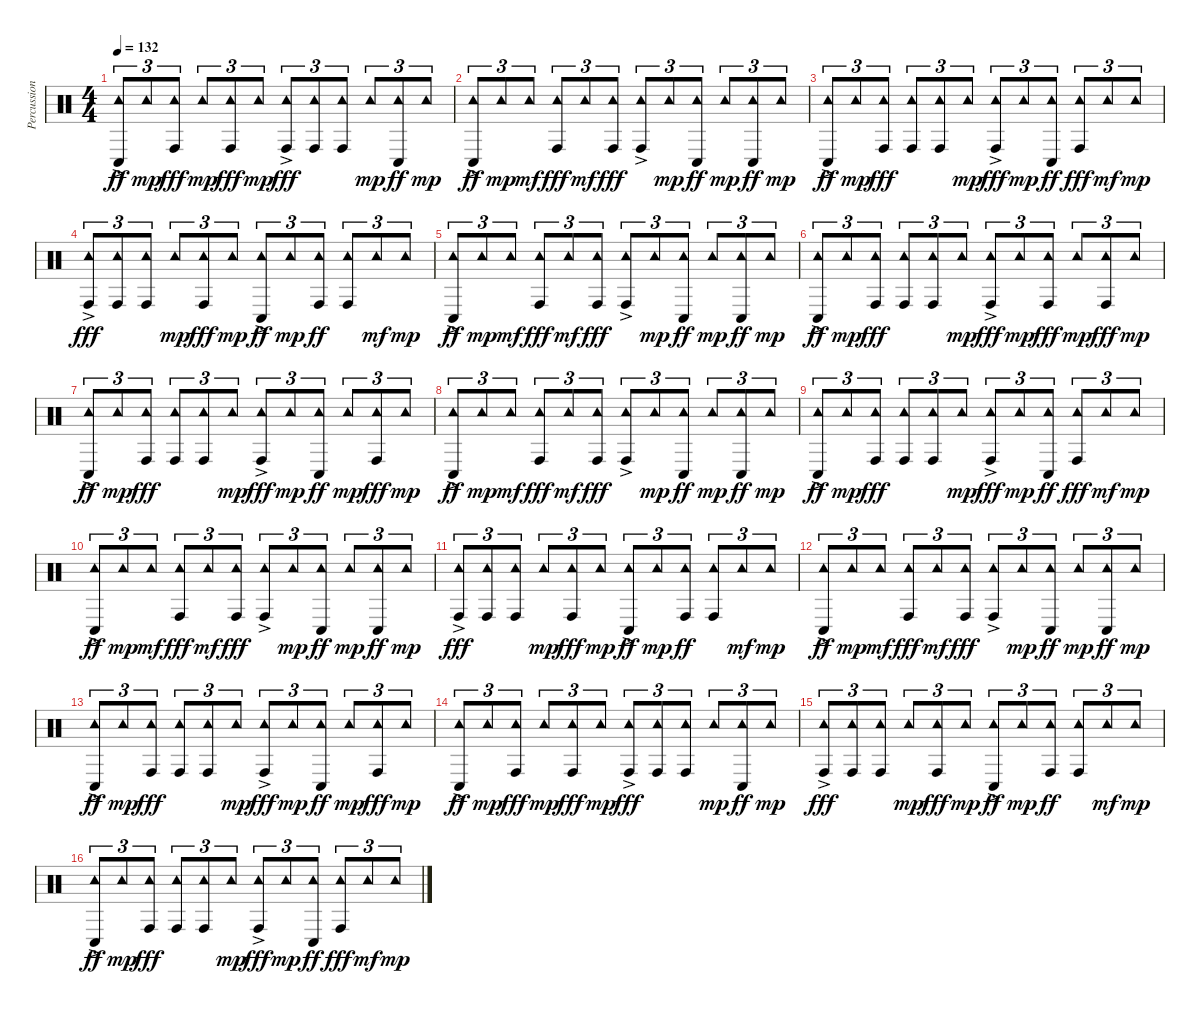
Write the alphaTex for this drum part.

\track ("Percussion" "Percussion") {instrument percussion}
\staff {score}
\articulation defaults
\ts (4 4)
\tempo 132
\clef neutral
\ks c
("Tambourine (hit)"{ac} "Conga low (hit)").8{tu (3 2) dy ff} "Tambourine (hit)".8{tu (3 2) dy mp} ("Tambourine (hit)" "Conga high (hit)").8{tu (3 2) dy fff} "Tambourine (hit)".8{tu (3 2) dy mp} ("Tambourine (hit)" "Conga high (hit)").8{tu (3 2) dy fff} "Tambourine (hit)".8{tu (3 2) dy mp} ("Tambourine (hit)"{ac} "Conga high (hit)").8{tu (3 2) dy fff} ("Tambourine (hit)" "Conga high (hit)").8{tu (3 2)} ("Tambourine (hit)" "Conga high (hit)").8{tu (3 2)} "Tambourine (hit)".8{tu (3 2) dy mp} ("Tambourine (hit)" "Conga low (hit)").8{tu (3 2) dy ff} "Tambourine (hit)".8{tu (3 2) dy mp} |
("Tambourine (hit)"{ac} "Conga low (hit)").8{tu (3 2) dy ff} "Tambourine (hit)".8{tu (3 2) dy mp} "Tambourine (hit)".8{tu (3 2) dy mf} ("Tambourine (hit)" "Conga high (hit)").8{tu (3 2) dy fff} "Tambourine (hit)".8{tu (3 2) dy mf} ("Tambourine (hit)" "Conga high (hit)").8{tu (3 2) dy fff} ("Tambourine (hit)"{ac} "Conga high (hit)").8{tu (3 2)} "Tambourine (hit)".8{tu (3 2) dy mp} ("Tambourine (hit)" "Conga low (hit)").8{tu (3 2) dy ff} "Tambourine (hit)".8{tu (3 2) dy mp} ("Tambourine (hit)" "Conga low (hit)").8{tu (3 2) dy ff} "Tambourine (hit)".8{tu (3 2) dy mp} |
("Tambourine (hit)"{ac} "Conga low (hit)").8{tu (3 2) dy ff} "Tambourine (hit)".8{tu (3 2) dy mp} ("Tambourine (hit)" "Conga high (hit)").8{tu (3 2) dy fff} ("Tambourine (hit)" "Conga high (hit)").8{tu (3 2)} ("Tambourine (hit)" "Conga high (hit)").8{tu (3 2)} "Tambourine (hit)".8{tu (3 2) dy mp} ("Tambourine (hit)"{ac} "Conga high (hit)").8{tu (3 2) dy fff} "Tambourine (hit)".8{tu (3 2) dy mp} ("Tambourine (hit)" "Conga low (hit)").8{tu (3 2) dy ff} ("Tambourine (hit)" "Conga high (hit)").8{tu (3 2) dy fff} "Tambourine (hit)".8{tu (3 2) dy mf} "Tambourine (hit)".8{tu (3 2) dy mp} |
("Tambourine (hit)"{ac} "Conga high (hit)").8{tu (3 2) dy fff} ("Tambourine (hit)" "Conga high (hit)").8{tu (3 2)} ("Tambourine (hit)" "Conga high (hit)").8{tu (3 2)} "Tambourine (hit)".8{tu (3 2) dy mp} ("Tambourine (hit)" "Conga high (hit)").8{tu (3 2) dy fff} "Tambourine (hit)".8{tu (3 2) dy mp} ("Tambourine (hit)"{ac} "Conga low (hit)").8{tu (3 2) dy ff} "Tambourine (hit)".8{tu (3 2) dy mp} ("Tambourine (hit)" "Conga high (hit)").8{tu (3 2) dy ff} ("Tambourine (hit)" "Conga high (hit)").8{tu (3 2)} "Tambourine (hit)".8{tu (3 2) dy mf} "Tambourine (hit)".8{tu (3 2) dy mp} |
("Tambourine (hit)"{ac} "Conga low (hit)").8{tu (3 2) dy ff} "Tambourine (hit)".8{tu (3 2) dy mp} "Tambourine (hit)".8{tu (3 2) dy mf} ("Tambourine (hit)" "Conga high (hit)").8{tu (3 2) dy fff} "Tambourine (hit)".8{tu (3 2) dy mf} ("Tambourine (hit)" "Conga high (hit)").8{tu (3 2) dy fff} ("Tambourine (hit)"{ac} "Conga high (hit)").8{tu (3 2)} "Tambourine (hit)".8{tu (3 2) dy mp} ("Tambourine (hit)" "Conga low (hit)").8{tu (3 2) dy ff} "Tambourine (hit)".8{tu (3 2) dy mp} ("Tambourine (hit)" "Conga low (hit)").8{tu (3 2) dy ff} "Tambourine (hit)".8{tu (3 2) dy mp} |
("Tambourine (hit)"{ac} "Conga low (hit)").8{tu (3 2) dy ff} "Tambourine (hit)".8{tu (3 2) dy mp} ("Tambourine (hit)" "Conga high (hit)").8{tu (3 2) dy fff} ("Tambourine (hit)" "Conga high (hit)").8{tu (3 2)} ("Tambourine (hit)" "Conga high (hit)").8{tu (3 2)} "Tambourine (hit)".8{tu (3 2) dy mp} ("Tambourine (hit)"{ac} "Conga high (hit)").8{tu (3 2) dy fff} "Tambourine (hit)".8{tu (3 2) dy mp} ("Tambourine (hit)" "Conga high (hit)").8{tu (3 2) dy fff} "Tambourine (hit)".8{tu (3 2) dy mp} ("Tambourine (hit)" "Conga high (hit)").8{tu (3 2) dy fff} "Tambourine (hit)".8{tu (3 2) dy mp} |
("Tambourine (hit)"{ac} "Conga low (hit)").8{tu (3 2) dy ff} "Tambourine (hit)".8{tu (3 2) dy mp} ("Tambourine (hit)" "Conga high (hit)").8{tu (3 2) dy fff} ("Tambourine (hit)" "Conga high (hit)").8{tu (3 2)} ("Tambourine (hit)" "Conga high (hit)").8{tu (3 2)} "Tambourine (hit)".8{tu (3 2) dy mp} ("Tambourine (hit)"{ac} "Conga high (hit)").8{tu (3 2) dy fff} "Tambourine (hit)".8{tu (3 2) dy mp} ("Tambourine (hit)" "Conga low (hit)").8{tu (3 2) dy ff} "Tambourine (hit)".8{tu (3 2) dy mp} ("Tambourine (hit)" "Conga high (hit)").8{tu (3 2) dy fff} "Tambourine (hit)".8{tu (3 2) dy mp} |
("Tambourine (hit)"{ac} "Conga low (hit)").8{tu (3 2) dy ff} "Tambourine (hit)".8{tu (3 2) dy mp} "Tambourine (hit)".8{tu (3 2) dy mf} ("Tambourine (hit)" "Conga high (hit)").8{tu (3 2) dy fff} "Tambourine (hit)".8{tu (3 2) dy mf} ("Tambourine (hit)" "Conga high (hit)").8{tu (3 2) dy fff} ("Tambourine (hit)"{ac} "Conga high (hit)").8{tu (3 2)} "Tambourine (hit)".8{tu (3 2) dy mp} ("Tambourine (hit)" "Conga low (hit)").8{tu (3 2) dy ff} "Tambourine (hit)".8{tu (3 2) dy mp} ("Tambourine (hit)" "Conga low (hit)").8{tu (3 2) dy ff} "Tambourine (hit)".8{tu (3 2) dy mp} |
("Tambourine (hit)"{ac} "Conga low (hit)").8{tu (3 2) dy ff} "Tambourine (hit)".8{tu (3 2) dy mp} ("Tambourine (hit)" "Conga high (hit)").8{tu (3 2) dy fff} ("Tambourine (hit)" "Conga high (hit)").8{tu (3 2)} ("Tambourine (hit)" "Conga high (hit)").8{tu (3 2)} "Tambourine (hit)".8{tu (3 2) dy mp} ("Tambourine (hit)"{ac} "Conga high (hit)").8{tu (3 2) dy fff} "Tambourine (hit)".8{tu (3 2) dy mp} ("Tambourine (hit)" "Conga low (hit)").8{tu (3 2) dy ff} ("Tambourine (hit)" "Conga high (hit)").8{tu (3 2) dy fff} "Tambourine (hit)".8{tu (3 2) dy mf} "Tambourine (hit)".8{tu (3 2) dy mp} |
("Tambourine (hit)"{ac} "Conga low (hit)").8{tu (3 2) dy ff} "Tambourine (hit)".8{tu (3 2) dy mp} "Tambourine (hit)".8{tu (3 2) dy mf} ("Tambourine (hit)" "Conga high (hit)").8{tu (3 2) dy fff} "Tambourine (hit)".8{tu (3 2) dy mf} ("Tambourine (hit)" "Conga high (hit)").8{tu (3 2) dy fff} ("Tambourine (hit)"{ac} "Conga high (hit)").8{tu (3 2)} "Tambourine (hit)".8{tu (3 2) dy mp} ("Tambourine (hit)" "Conga low (hit)").8{tu (3 2) dy ff} "Tambourine (hit)".8{tu (3 2) dy mp} ("Tambourine (hit)" "Conga low (hit)").8{tu (3 2) dy ff} "Tambourine (hit)".8{tu (3 2) dy mp} |
("Tambourine (hit)"{ac} "Conga high (hit)").8{tu (3 2) dy fff} ("Tambourine (hit)" "Conga high (hit)").8{tu (3 2)} ("Tambourine (hit)" "Conga high (hit)").8{tu (3 2)} "Tambourine (hit)".8{tu (3 2) dy mp} ("Tambourine (hit)" "Conga high (hit)").8{tu (3 2) dy fff} "Tambourine (hit)".8{tu (3 2) dy mp} ("Tambourine (hit)"{ac} "Conga low (hit)").8{tu (3 2) dy ff} "Tambourine (hit)".8{tu (3 2) dy mp} ("Tambourine (hit)" "Conga high (hit)").8{tu (3 2) dy ff} ("Tambourine (hit)" "Conga high (hit)").8{tu (3 2)} "Tambourine (hit)".8{tu (3 2) dy mf} "Tambourine (hit)".8{tu (3 2) dy mp} |
("Tambourine (hit)"{ac} "Conga low (hit)").8{tu (3 2) dy ff} "Tambourine (hit)".8{tu (3 2) dy mp} "Tambourine (hit)".8{tu (3 2) dy mf} ("Tambourine (hit)" "Conga high (hit)").8{tu (3 2) dy fff} "Tambourine (hit)".8{tu (3 2) dy mf} ("Tambourine (hit)" "Conga high (hit)").8{tu (3 2) dy fff} ("Tambourine (hit)"{ac} "Conga high (hit)").8{tu (3 2)} "Tambourine (hit)".8{tu (3 2) dy mp} ("Tambourine (hit)" "Conga low (hit)").8{tu (3 2) dy ff} "Tambourine (hit)".8{tu (3 2) dy mp} ("Tambourine (hit)" "Conga low (hit)").8{tu (3 2) dy ff} "Tambourine (hit)".8{tu (3 2) dy mp} |
("Tambourine (hit)"{ac} "Conga low (hit)").8{tu (3 2) dy ff} "Tambourine (hit)".8{tu (3 2) dy mp} ("Tambourine (hit)" "Conga high (hit)").8{tu (3 2) dy fff} ("Tambourine (hit)" "Conga high (hit)").8{tu (3 2)} ("Tambourine (hit)" "Conga high (hit)").8{tu (3 2)} "Tambourine (hit)".8{tu (3 2) dy mp} ("Tambourine (hit)"{ac} "Conga high (hit)").8{tu (3 2) dy fff} "Tambourine (hit)".8{tu (3 2) dy mp} ("Tambourine (hit)" "Conga low (hit)").8{tu (3 2) dy ff} "Tambourine (hit)".8{tu (3 2) dy mp} ("Tambourine (hit)" "Conga high (hit)").8{tu (3 2) dy fff} "Tambourine (hit)".8{tu (3 2) dy mp} |
("Tambourine (hit)"{ac} "Conga low (hit)").8{tu (3 2) dy ff} "Tambourine (hit)".8{tu (3 2) dy mp} ("Tambourine (hit)" "Conga high (hit)").8{tu (3 2) dy fff} "Tambourine (hit)".8{tu (3 2) dy mp} ("Tambourine (hit)" "Conga high (hit)").8{tu (3 2) dy fff} "Tambourine (hit)".8{tu (3 2) dy mp} ("Tambourine (hit)"{ac} "Conga high (hit)").8{tu (3 2) dy fff} ("Tambourine (hit)" "Conga high (hit)").8{tu (3 2)} ("Tambourine (hit)" "Conga high (hit)").8{tu (3 2)} "Tambourine (hit)".8{tu (3 2) dy mp} ("Tambourine (hit)" "Conga low (hit)").8{tu (3 2) dy ff} "Tambourine (hit)".8{tu (3 2) dy mp} |
("Tambourine (hit)"{ac} "Conga high (hit)").8{tu (3 2) dy fff} ("Tambourine (hit)" "Conga high (hit)").8{tu (3 2)} ("Tambourine (hit)" "Conga high (hit)").8{tu (3 2)} "Tambourine (hit)".8{tu (3 2) dy mp} ("Tambourine (hit)" "Conga high (hit)").8{tu (3 2) dy fff} "Tambourine (hit)".8{tu (3 2) dy mp} ("Tambourine (hit)"{ac} "Conga low (hit)").8{tu (3 2) dy ff} "Tambourine (hit)".8{tu (3 2) dy mp} ("Tambourine (hit)" "Conga high (hit)").8{tu (3 2) dy ff} ("Tambourine (hit)" "Conga high (hit)").8{tu (3 2)} "Tambourine (hit)".8{tu (3 2) dy mf} "Tambourine (hit)".8{tu (3 2) dy mp} |
("Tambourine (hit)"{ac} "Conga low (hit)").8{tu (3 2) dy ff} "Tambourine (hit)".8{tu (3 2) dy mp} ("Tambourine (hit)" "Conga high (hit)").8{tu (3 2) dy fff} ("Tambourine (hit)" "Conga high (hit)").8{tu (3 2)} ("Tambourine (hit)" "Conga high (hit)").8{tu (3 2)} "Tambourine (hit)".8{tu (3 2) dy mp} ("Tambourine (hit)"{ac} "Conga high (hit)").8{tu (3 2) dy fff} "Tambourine (hit)".8{tu (3 2) dy mp} ("Tambourine (hit)" "Conga low (hit)").8{tu (3 2) dy ff} ("Tambourine (hit)" "Conga high (hit)").8{tu (3 2) dy fff} "Tambourine (hit)".8{tu (3 2) dy mf} "Tambourine (hit)".8{tu (3 2) dy mp}
